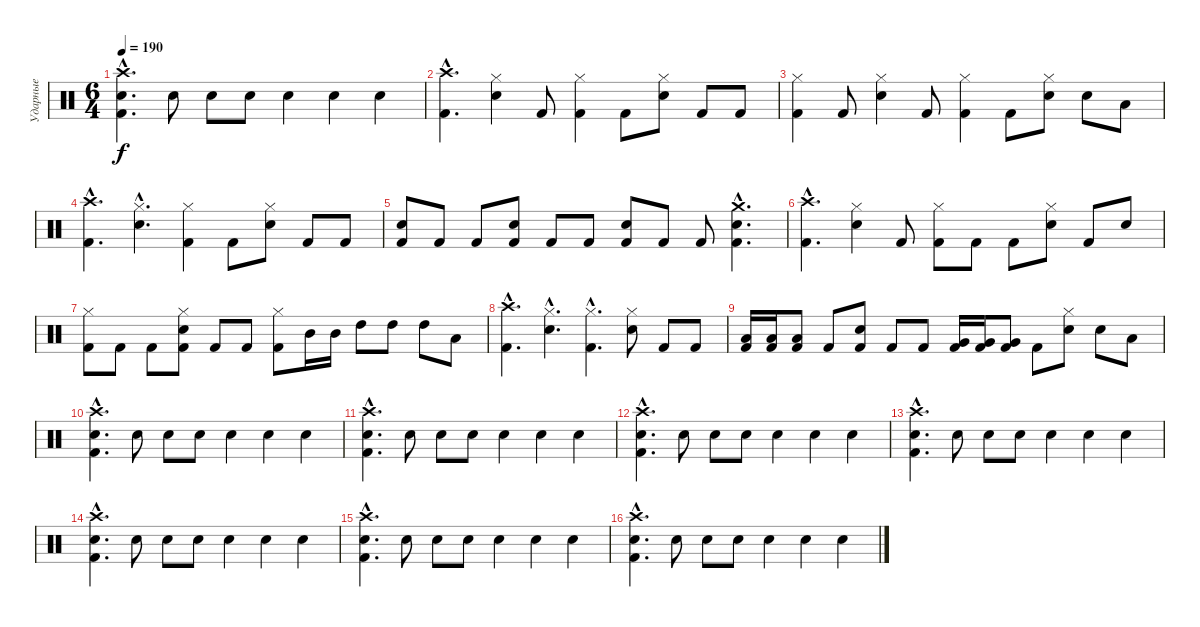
\track ("Ударные" "Ударные") {instrument percussion}
\staff {score}
\articulation defaults
\ts (6 4)
\tempo 190
\clef neutral
\ks c
("Crash high (hit)"{hac} "Electric Snare (hit)"{hac} "Kick (hit) 2"{hac}).4{d dy f} "Electric Snare (hit)".8 "Electric Snare (hit)".8 "Electric Snare (hit)".8 "Electric Snare (hit)".4 "Electric Snare (hit)".4 "Electric Snare (hit)".4 |
("Crash high (hit)"{hac} "Kick (hit) 2"{hac}).4{d} ("Hi-Hat (closed)" "Electric Snare (hit)").4 "Kick (hit) 2".8 ("Hi-Hat (closed)" "Kick (hit) 2").4 "Kick (hit) 2".8 ("Hi-Hat (closed)" "Electric Snare (hit)").8 "Kick (hit) 2".8 "Kick (hit) 2".8 |
("Hi-Hat (closed)" "Kick (hit) 2").4 "Kick (hit) 2".8 ("Hi-Hat (closed)" "Electric Snare (hit)").4 "Kick (hit) 2".8 ("Hi-Hat (closed)" "Kick (hit) 2").4 "Kick (hit) 2".8 ("Hi-Hat (closed)" "Electric Snare (hit)").8 "Electric Snare (hit)".8 "Low Tom (hit)".8 |
("Crash high (hit)"{hac} "Kick (hit) 2"{hac}).4{d} ("Hi-Hat (closed)"{hac} "Electric Snare (hit)"{hac}).4{d} ("Hi-Hat (closed)" "Kick (hit) 2").4 "Kick (hit) 2".8 ("Hi-Hat (closed)" "Electric Snare (hit)").8 "Kick (hit) 2".8 "Kick (hit) 2".8 |
("Electric Snare (hit)" "Kick (hit) 2").8 "Kick (hit) 2".8 "Kick (hit) 2".8 ("Electric Snare (hit)" "Kick (hit) 2").8 "Kick (hit) 2".8 "Kick (hit) 2".8 ("Electric Snare (hit)" "Kick (hit) 2").8 "Kick (hit) 2".8 "Kick (hit) 2".8 ("Crash medium (hit)"{hac} "Electric Snare (hit)"{hac} "Kick (hit) 2"{hac}).4{d} |
("Crash high (hit)"{hac} "Kick (hit) 2"{hac}).4{d} ("Hi-Hat (closed)" "Electric Snare (hit)").4 "Kick (hit) 2".8 ("Hi-Hat (closed)" "Kick (hit) 2").8 "Kick (hit) 2".8 "Kick (hit) 2".8 ("Hi-Hat (closed)" "Electric Snare (hit)").8 "Kick (hit) 2".8 "Electric Snare (hit)".8 |
("Hi-Hat (closed)" "Kick (hit) 2").8 "Kick (hit) 2".8 "Kick (hit) 2".8 ("Hi-Hat (closed)" "Electric Snare (hit)" "Kick (hit) 2").8 "Kick (hit) 2".8 "Kick (hit) 2".8 ("Hi-Hat (closed)" "Kick (hit) 2").8 "Mid Tom (hit)".16 "Mid Tom (hit)".16 "High Tom (hit)".8 "High Tom (hit)".8 "High Tom (hit)".8 "Low Tom (hit)".8 |
("Crash high (hit)"{hac} "Kick (hit) 2"{hac}).4{d} ("Hi-Hat (closed)"{hac} "Electric Snare (hit)"{hac}).4{d} ("Hi-Hat (closed)"{hac} "Kick (hit) 2"{hac}).4{d} ("Hi-Hat (closed)" "Electric Snare (hit)").8 "Kick (hit) 2".8 "Kick (hit) 2".8 |
("Low Tom (hit)" "Kick (hit) 2").16 ("Low Tom (hit)" "Kick (hit) 2").16 ("Low Tom (hit)" "Kick (hit) 2").8 "Kick (hit) 2".8 ("Electric Snare (hit)" "Kick (hit) 2").8 "Kick (hit) 2".8 "Kick (hit) 2".8 ("Very Low Tom (hit)" "Kick (hit) 2").16 ("Very Low Tom (hit)" "Kick (hit) 2").16 ("Very Low Tom (hit)" "Kick (hit) 2").8 "Kick (hit) 2".8 ("Hi-Hat (closed)" "Electric Snare (hit)").8 "Electric Snare (hit)".8 "Low Tom (hit)".8 |
("Crash high (hit)"{hac} "Electric Snare (hit)"{hac} "Kick (hit) 2"{hac}).4{d} "Electric Snare (hit)".8 "Electric Snare (hit)".8 "Electric Snare (hit)".8 "Electric Snare (hit)".4 "Electric Snare (hit)".4 "Electric Snare (hit)".4 |
("Crash high (hit)"{hac} "Electric Snare (hit)"{hac} "Kick (hit) 2"{hac}).4{d} "Electric Snare (hit)".8 "Electric Snare (hit)".8 "Electric Snare (hit)".8 "Electric Snare (hit)".4 "Electric Snare (hit)".4 "Electric Snare (hit)".4 |
("Crash high (hit)"{hac} "Electric Snare (hit)"{hac} "Kick (hit) 2"{hac}).4{d} "Electric Snare (hit)".8 "Electric Snare (hit)".8 "Electric Snare (hit)".8 "Electric Snare (hit)".4 "Electric Snare (hit)".4 "Electric Snare (hit)".4 |
("Crash high (hit)"{hac} "Electric Snare (hit)"{hac} "Kick (hit) 2"{hac}).4{d} "Electric Snare (hit)".8 "Electric Snare (hit)".8 "Electric Snare (hit)".8 "Electric Snare (hit)".4 "Electric Snare (hit)".4 "Electric Snare (hit)".4 |
("Crash high (hit)"{hac} "Electric Snare (hit)"{hac} "Kick (hit) 2"{hac}).4{d} "Electric Snare (hit)".8 "Electric Snare (hit)".8 "Electric Snare (hit)".8 "Electric Snare (hit)".4 "Electric Snare (hit)".4 "Electric Snare (hit)".4 |
("Crash high (hit)"{hac} "Electric Snare (hit)"{hac} "Kick (hit) 2"{hac}).4{d} "Electric Snare (hit)".8 "Electric Snare (hit)".8 "Electric Snare (hit)".8 "Electric Snare (hit)".4 "Electric Snare (hit)".4 "Electric Snare (hit)".4 |
("Crash high (hit)"{hac} "Electric Snare (hit)"{hac} "Kick (hit) 2"{hac}).4{d} "Electric Snare (hit)".8 "Electric Snare (hit)".8 "Electric Snare (hit)".8 "Electric Snare (hit)".4 "Electric Snare (hit)".4 "Electric Snare (hit)".4
